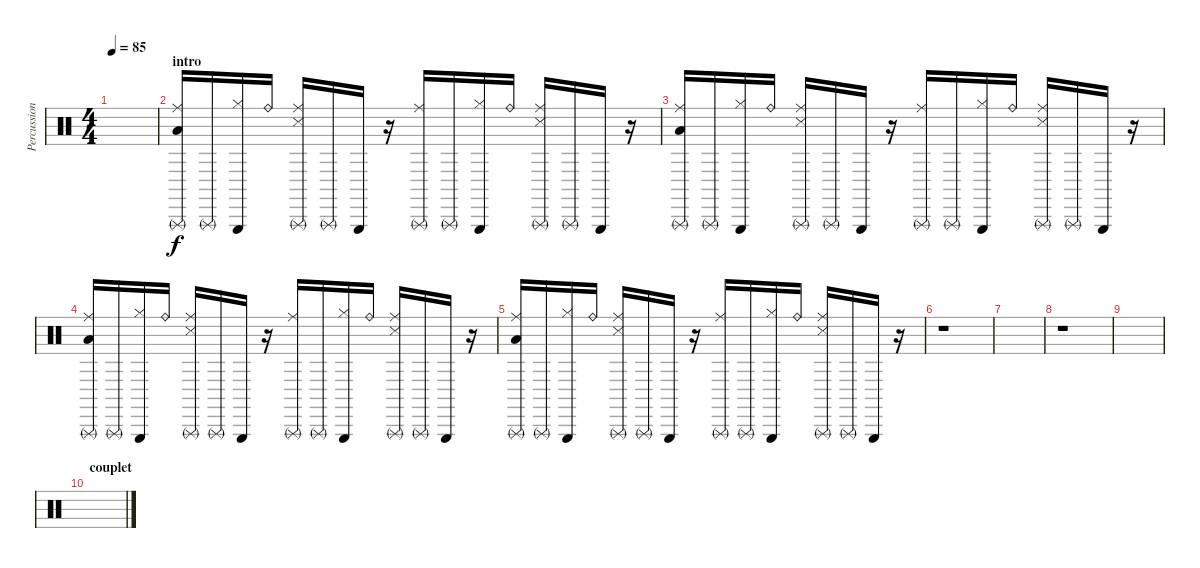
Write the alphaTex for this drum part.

\track ("Percussions" "Percussion") {instrument percussion}
\staff {score}
\articulation defaults
\ts (4 4)
\tempo 85
\clef neutral
\ks c
|
\section ("" "intro")
("Low Floor Tom (hit)" "Ride (middle)" "Triangle (rnute)").16 "Triangle (rnute)".16 ("Hi-Hat (closed)" "Triangle (hit)").16 "Ride (bell)".16 ("Snare (side stick) 3" "Ride (middle)" "Triangle (rnute)").16 "Triangle (rnute)".16 "Triangle (hit)".16 r.16 ("Ride (middle)" "Triangle (rnute)").16 "Triangle (rnute)".16 ("Hi-Hat (closed)" "Triangle (hit)").16 "Ride (bell)".16 ("Snare (side stick) 3" "Ride (middle)" "Triangle (rnute)").16 "Triangle (rnute)".16 "Triangle (hit)".16 r.16 |
("Low Floor Tom (hit)" "Ride (middle)" "Triangle (rnute)").16 "Triangle (rnute)".16 ("Hi-Hat (closed)" "Triangle (hit)").16 "Ride (bell)".16 ("Snare (side stick) 3" "Ride (middle)" "Triangle (rnute)").16 "Triangle (rnute)".16 "Triangle (hit)".16 r.16 ("Ride (middle)" "Triangle (rnute)").16 "Triangle (rnute)".16 ("Hi-Hat (closed)" "Triangle (hit)").16 "Ride (bell)".16 ("Snare (side stick) 3" "Ride (middle)" "Triangle (rnute)").16 "Triangle (rnute)".16 "Triangle (hit)".16 r.16 |
("Low Floor Tom (hit)" "Ride (middle)" "Triangle (rnute)").16 "Triangle (rnute)".16 ("Hi-Hat (closed)" "Triangle (hit)").16 "Ride (bell)".16 ("Snare (side stick) 3" "Ride (middle)" "Triangle (rnute)").16 "Triangle (rnute)".16 "Triangle (hit)".16 r.16 ("Ride (middle)" "Triangle (rnute)").16 "Triangle (rnute)".16 ("Hi-Hat (closed)" "Triangle (hit)").16 "Ride (bell)".16 ("Snare (side stick) 3" "Ride (middle)" "Triangle (rnute)").16 "Triangle (rnute)".16 "Triangle (hit)".16 r.16 |
("Low Floor Tom (hit)" "Ride (middle)" "Triangle (rnute)").16 "Triangle (rnute)".16 ("Hi-Hat (closed)" "Triangle (hit)").16 "Ride (bell)".16 ("Snare (side stick) 3" "Ride (middle)" "Triangle (rnute)").16 "Triangle (rnute)".16 "Triangle (hit)".16 r.16 ("Ride (middle)" "Triangle (rnute)").16 "Triangle (rnute)".16 ("Hi-Hat (closed)" "Triangle (hit)").16 "Ride (bell)".16 ("Snare (side stick) 3" "Ride (middle)" "Triangle (rnute)").16 "Triangle (rnute)".16 "Triangle (hit)".16 r.16 |
r.1 |
|
r.1 |
|
\section ("" "couplet")
